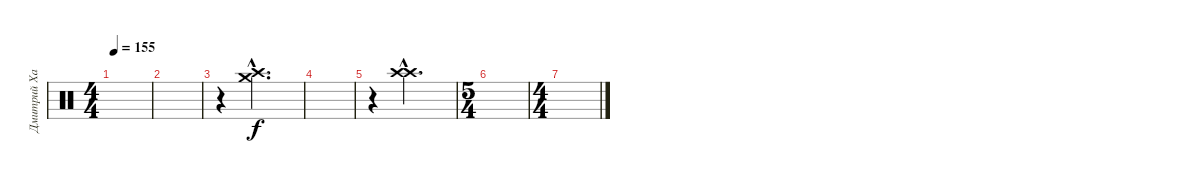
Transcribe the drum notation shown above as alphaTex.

\track ("Дмитрий Хакимов" "Дмитрий Ха") {instrument percussion}
\staff {score}
\articulation defaults
\ts (4 4)
\tempo 155
\clef neutral
\ks c
|
|
r.4 ("Crash high (hit)"{hac} "Crash medium (hit)"{hac}).2{d} |
|
r.4 ("Crash high (hit)"{hac} "Crash high (hit)"{hac}).2{d} |
\ts (5 4)
|
\ts (4 4)
